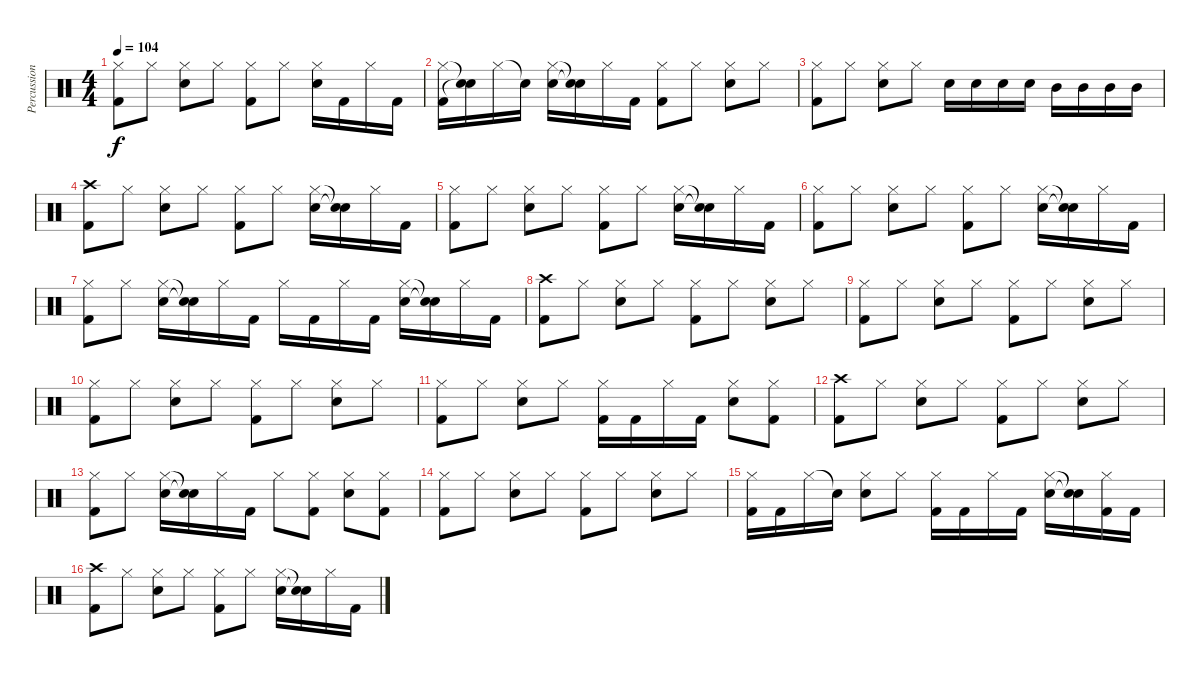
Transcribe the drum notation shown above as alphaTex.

\track ("Percussion" "Percussion") {instrument percussion}
\staff {score}
\articulation defaults
\ts (4 4)
\tempo 104
\clef neutral
\ks c
("Hi-Hat (closed)" "Kick (hit) 2").8{dy f} "Hi-Hat (closed)".8 ("Hi-Hat (closed)" "Snare (hit) 2").8 "Hi-Hat (closed)".8 ("Hi-Hat (closed)" "Kick (hit) 2").8 "Hi-Hat (closed)".8 ("Hi-Hat (closed)" "Snare (hit) 2").16 "Kick (hit) 2".16 "Hi-Hat (closed)".16 "Kick (hit) 2".16 |
("Hi-Hat (closed)" "Kick (hit) 2").16 ("Snare (hit)"{t} "Snare (hit)"{t}).16 "Hi-Hat (closed)".16 "Snare (hit)"{t}.16 ("Hi-Hat (closed)" "Snare (hit) 2").16 ("Snare (hit)"{t} "Snare (hit)"{t}).16 "Hi-Hat (closed)".16 "Kick (hit) 2".16 ("Hi-Hat (closed)" "Kick (hit) 2").8 "Hi-Hat (closed)".8 ("Hi-Hat (closed)" "Snare (hit) 2").8 "Hi-Hat (closed)".8 |
("Hi-Hat (closed)" "Kick (hit) 2").8 "Hi-Hat (closed)".8 ("Hi-Hat (closed)" "Snare (hit) 2").8 "Hi-Hat (closed)".8 "Snare (hit) 2".16 "Snare (hit) 2".16 "Snare (hit) 2".16 "Snare (hit) 2".16 "Mid Tom (hit)".16 "Mid Tom (hit)".16 "Mid Tom (hit)".16 "Mid Tom (hit)".16 |
("Crash high (hit)" "Kick (hit) 2").8 "Hi-Hat (closed)".8 ("Hi-Hat (closed)" "Snare (hit) 2").8 "Hi-Hat (closed)".8 ("Hi-Hat (closed)" "Kick (hit) 2").8 "Hi-Hat (closed)".8 ("Hi-Hat (closed)" "Snare (hit) 2").16 ("Snare (hit)"{t} "Snare (hit)"{t}).16 "Hi-Hat (closed)".16 "Kick (hit) 2".16 |
("Hi-Hat (closed)" "Kick (hit) 2").8 "Hi-Hat (closed)".8 ("Hi-Hat (closed)" "Snare (hit) 2").8 "Hi-Hat (closed)".8 ("Hi-Hat (closed)" "Kick (hit) 2").8 "Hi-Hat (closed)".8 ("Hi-Hat (closed)" "Snare (hit) 2").16 ("Snare (hit)"{t} "Snare (hit)"{t}).16 "Hi-Hat (closed)".16 "Kick (hit) 2".16 |
("Hi-Hat (closed)" "Kick (hit) 2").8 "Hi-Hat (closed)".8 ("Hi-Hat (closed)" "Snare (hit) 2").8 "Hi-Hat (closed)".8 ("Hi-Hat (closed)" "Kick (hit) 2").8 "Hi-Hat (closed)".8 ("Hi-Hat (closed)" "Snare (hit) 2").16 ("Snare (hit)"{t} "Snare (hit)"{t}).16 "Hi-Hat (closed)".16 "Kick (hit) 2".16 |
("Hi-Hat (closed)" "Kick (hit) 2").8 "Hi-Hat (closed)".8 ("Hi-Hat (closed)" "Snare (hit) 2").16 ("Snare (hit)"{t} "Snare (hit)"{t}).16 "Hi-Hat (closed)".16 "Kick (hit) 2".16 "Hi-Hat (closed)".16 "Kick (hit) 2".16 "Hi-Hat (closed)".16 "Kick (hit) 2".16 ("Hi-Hat (closed)" "Snare (hit) 2").16 ("Snare (hit)"{t} "Snare (hit)"{t}).16 "Hi-Hat (closed)".16 "Kick (hit) 2".16 |
("Crash high (hit)" "Kick (hit) 2").8 "Hi-Hat (closed)".8 ("Hi-Hat (closed)" "Snare (hit) 2").8 "Hi-Hat (closed)".8 ("Hi-Hat (closed)" "Kick (hit) 2").8 "Hi-Hat (closed)".8 ("Hi-Hat (closed)" "Snare (hit) 2").8 "Hi-Hat (closed)".8 |
("Hi-Hat (closed)" "Kick (hit) 2").8 "Hi-Hat (closed)".8 ("Hi-Hat (closed)" "Snare (hit) 2").8 "Hi-Hat (closed)".8 ("Hi-Hat (closed)" "Kick (hit) 2").8 "Hi-Hat (closed)".8 ("Hi-Hat (closed)" "Snare (hit) 2").8 "Hi-Hat (closed)".8 |
("Hi-Hat (closed)" "Kick (hit) 2").8 "Hi-Hat (closed)".8 ("Hi-Hat (closed)" "Snare (hit) 2").8 "Hi-Hat (closed)".8 ("Hi-Hat (closed)" "Kick (hit) 2").8 "Hi-Hat (closed)".8 ("Hi-Hat (closed)" "Snare (hit) 2").8 "Hi-Hat (closed)".8 |
("Hi-Hat (closed)" "Kick (hit) 2").8 "Hi-Hat (closed)".8 ("Hi-Hat (closed)" "Snare (hit) 2").8 "Hi-Hat (closed)".8 ("Hi-Hat (closed)" "Kick (hit) 2").16 "Kick (hit) 2".16 "Hi-Hat (closed)".16 "Kick (hit) 2".16 ("Hi-Hat (closed)" "Snare (hit) 2").8 ("Hi-Hat (closed)" "Kick (hit) 2").8 |
("Crash high (hit)" "Kick (hit) 2").8 "Hi-Hat (closed)".8 ("Hi-Hat (closed)" "Snare (hit) 2").8 "Hi-Hat (closed)".8 ("Hi-Hat (closed)" "Kick (hit) 2").8 "Hi-Hat (closed)".8 ("Hi-Hat (closed)" "Snare (hit) 2").8 "Hi-Hat (closed)".8 |
("Hi-Hat (closed)" "Kick (hit) 2").8 "Hi-Hat (closed)".8 ("Hi-Hat (closed)" "Snare (hit) 2").16 ("Snare (hit)"{t} "Snare (hit)"{t}).16 "Hi-Hat (closed)".16 "Kick (hit) 2".16 "Hi-Hat (closed)".8 ("Hi-Hat (closed)" "Kick (hit) 2").8 ("Hi-Hat (closed)" "Snare (hit) 2").8 ("Hi-Hat (closed)" "Kick (hit) 2").8 |
("Hi-Hat (closed)" "Kick (hit) 2").8 "Hi-Hat (closed)".8 ("Hi-Hat (closed)" "Snare (hit) 2").8 "Hi-Hat (closed)".8 ("Hi-Hat (closed)" "Kick (hit) 2").8 "Hi-Hat (closed)".8 ("Hi-Hat (closed)" "Snare (hit) 2").8 "Hi-Hat (closed)".8 |
("Hi-Hat (closed)" "Kick (hit) 2").16 "Kick (hit) 2".16 "Hi-Hat (closed)".16 "Snare (hit)"{t}.16 ("Hi-Hat (closed)" "Snare (hit) 2").8 "Hi-Hat (closed)".8 ("Hi-Hat (closed)" "Kick (hit) 2").16 "Kick (hit) 2".16 "Hi-Hat (closed)".16 "Kick (hit) 2".16 ("Hi-Hat (closed)" "Snare (hit) 2").16 ("Snare (hit)"{t} "Snare (hit)"{t}).16 ("Hi-Hat (closed)" "Kick (hit) 2").16 "Kick (hit) 2".16 |
("Crash high (hit)" "Kick (hit) 2").8 "Hi-Hat (closed)".8 ("Hi-Hat (closed)" "Snare (hit) 2").8 "Hi-Hat (closed)".8 ("Hi-Hat (closed)" "Kick (hit) 2").8 "Hi-Hat (closed)".8 ("Hi-Hat (closed)" "Snare (hit) 2").16 ("Snare (hit)"{t} "Snare (hit)"{t}).16 "Hi-Hat (closed)".16 "Kick (hit) 2".16
